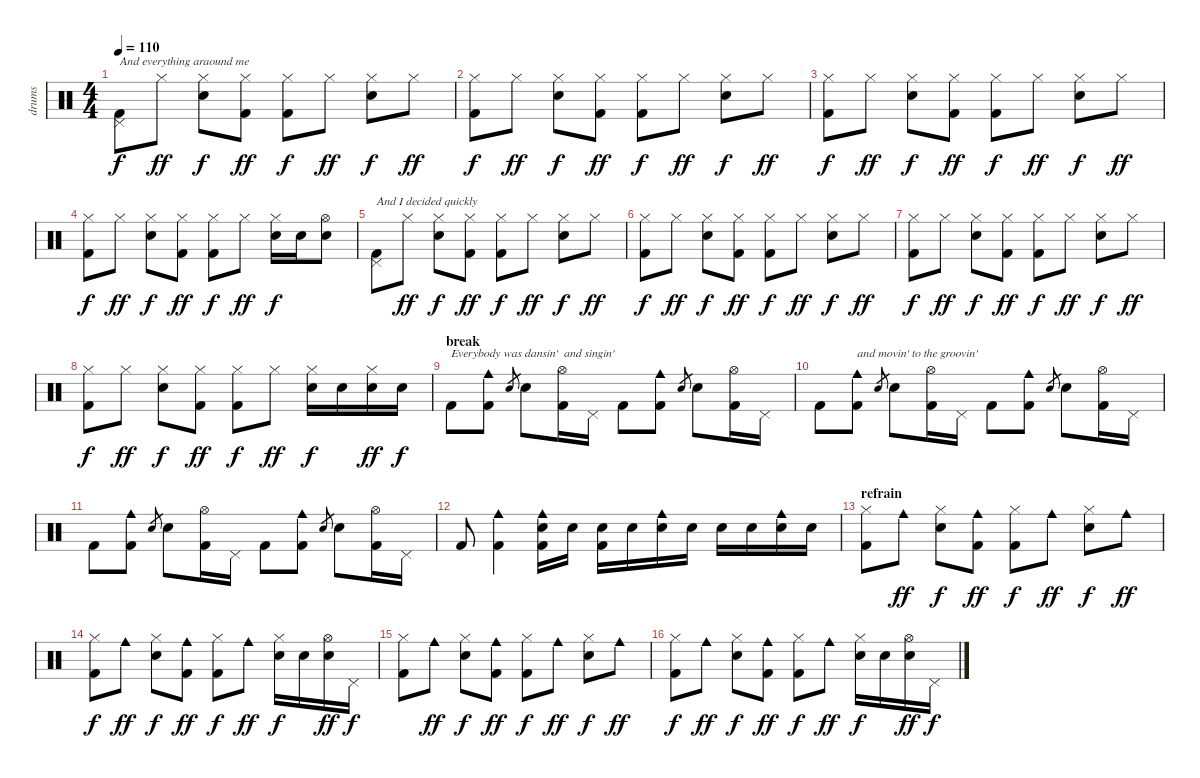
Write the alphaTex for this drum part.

\track ("drums" "drums") {instrument percussion}
\staff {score}
\articulation defaults
\ts (4 4)
\tempo 110
\clef neutral
\ks aminor
("Pedal Hi-Hat (hit)" "Kick (hit) 2").8{txt "And everything araound me" dy f} "Hi-Hat (closed)".8{dy ff} ("Hi-Hat (closed)" "Snare (hit) 2").8{dy f} ("Hi-Hat (closed)" "Kick (hit) 2").8{dy ff} ("Hi-Hat (closed)" "Kick (hit) 2").8{dy f} "Hi-Hat (closed)".8{dy ff} ("Hi-Hat (closed)" "Snare (hit) 2").8{dy f} "Hi-Hat (closed)".8{dy ff} |
("Hi-Hat (closed)" "Kick (hit) 2").8{dy f} "Hi-Hat (closed)".8{dy ff} ("Hi-Hat (closed)" "Snare (hit) 2").8{dy f} ("Hi-Hat (closed)" "Kick (hit) 2").8{dy ff} ("Hi-Hat (closed)" "Kick (hit) 2").8{dy f} "Hi-Hat (closed)".8{dy ff} ("Hi-Hat (closed)" "Snare (hit) 2").8{dy f} "Hi-Hat (closed)".8{dy ff} |
("Hi-Hat (closed)" "Kick (hit) 2").8{dy f} "Hi-Hat (closed)".8{dy ff} ("Hi-Hat (closed)" "Snare (hit) 2").8{dy f} ("Hi-Hat (closed)" "Kick (hit) 2").8{dy ff} ("Hi-Hat (closed)" "Kick (hit) 2").8{dy f} "Hi-Hat (closed)".8{dy ff} ("Hi-Hat (closed)" "Snare (hit) 2").8{dy f} "Hi-Hat (closed)".8{dy ff} |
("Hi-Hat (closed)" "Kick (hit) 2").8{dy f} "Hi-Hat (closed)".8{dy ff} ("Hi-Hat (closed)" "Snare (hit) 2").8{dy f} ("Hi-Hat (closed)" "Kick (hit) 2").8{dy ff} ("Hi-Hat (closed)" "Kick (hit) 2").8{dy f} "Hi-Hat (closed)".8{dy ff} ("Hi-Hat (closed)" "Snare (hit) 2").16{dy f} "Snare (hit) 2".16 ("Hi-Hat (open)" "Snare (hit) 2").8 |
("Pedal Hi-Hat (hit)" "Kick (hit) 2").8{txt "And I decided quickly"} "Hi-Hat (closed)".8{dy ff} ("Hi-Hat (closed)" "Snare (hit) 2").8{dy f} ("Hi-Hat (closed)" "Kick (hit) 2").8{dy ff} ("Hi-Hat (closed)" "Kick (hit) 2").8{dy f} "Hi-Hat (closed)".8{dy ff} ("Hi-Hat (closed)" "Snare (hit) 2").8{dy f} "Hi-Hat (closed)".8{dy ff} |
("Hi-Hat (closed)" "Kick (hit) 2").8{dy f} "Hi-Hat (closed)".8{dy ff} ("Hi-Hat (closed)" "Snare (hit) 2").8{dy f} ("Hi-Hat (closed)" "Kick (hit) 2").8{dy ff} ("Hi-Hat (closed)" "Kick (hit) 2").8{dy f} "Hi-Hat (closed)".8{dy ff} ("Hi-Hat (closed)" "Snare (hit) 2").8{dy f} "Hi-Hat (closed)".8{dy ff} |
("Hi-Hat (closed)" "Kick (hit) 2").8{dy f} "Hi-Hat (closed)".8{dy ff} ("Hi-Hat (closed)" "Snare (hit) 2").8{dy f} ("Hi-Hat (closed)" "Kick (hit) 2").8{dy ff} ("Hi-Hat (closed)" "Kick (hit) 2").8{dy f} "Hi-Hat (closed)".8{dy ff} ("Hi-Hat (closed)" "Snare (hit) 2").8{dy f} "Hi-Hat (closed)".8{dy ff} |
("Hi-Hat (closed)" "Kick (hit) 2").8{dy f} "Hi-Hat (closed)".8{dy ff} ("Hi-Hat (closed)" "Snare (hit) 2").8{dy f} ("Hi-Hat (closed)" "Kick (hit) 2").8{dy ff} ("Hi-Hat (closed)" "Kick (hit) 2").8{dy f} "Hi-Hat (closed)".8{dy ff} ("Hi-Hat (closed)" "Snare (hit) 2").16{dy f} "Snare (hit) 2".16 ("Hi-Hat (closed)" "Snare (hit) 2").16{dy ff} "Snare (hit) 2".16{dy f} |
\section ("" "break")
"Kick (hit) 2".8{txt "Everybody was dansin'  and singin' "} ("Cowbell medium (hit)" "Kick (hit) 2").8 "Hand Clap (hit)".8{gr} "Hand Clap (hit)".8 ("Hi-Hat (open)" "Kick (hit) 2").16 "Pedal Hi-Hat (hit)".16 "Kick (hit) 2".8 ("Cowbell medium (hit)" "Kick (hit) 2").8 "Hand Clap (hit)".8{gr} "Hand Clap (hit)".8 ("Hi-Hat (open)" "Kick (hit) 2").16 "Pedal Hi-Hat (hit)".16 |
"Kick (hit) 2".8 ("Cowbell medium (hit)" "Kick (hit) 2").8{txt "and movin' to the groovin'"} "Hand Clap (hit)".8{gr} "Hand Clap (hit)".8 ("Hi-Hat (open)" "Kick (hit) 2").16 "Pedal Hi-Hat (hit)".16 "Kick (hit) 2".8 ("Cowbell medium (hit)" "Kick (hit) 2").8 "Hand Clap (hit)".8{gr} "Hand Clap (hit)".8 ("Hi-Hat (open)" "Kick (hit) 2").16 "Pedal Hi-Hat (hit)".16 |
"Kick (hit) 2".8 ("Cowbell medium (hit)" "Kick (hit) 2").8 "Hand Clap (hit)".8{gr} "Hand Clap (hit)".8 ("Hi-Hat (open)" "Kick (hit) 2").16 "Pedal Hi-Hat (hit)".16 "Kick (hit) 2".8 ("Cowbell medium (hit)" "Kick (hit) 2").8 "Hand Clap (hit)".8{gr} "Hand Clap (hit)".8 ("Hi-Hat (open)" "Kick (hit) 2").16 "Pedal Hi-Hat (hit)".16 |
"Kick (hit) 2".8 ("Cowbell medium (hit)" "Kick (hit) 2").4 ("Cowbell medium (hit)" "Snare (hit) 2" "Kick (hit) 2").16 "Snare (hit) 2".16 ("Snare (hit) 2" "Kick (hit) 2").16 "Snare (hit) 2".16 ("Cowbell medium (hit)" "Snare (hit) 2").16 "Snare (hit) 2".16 "Snare (hit) 2".16 "Snare (hit) 2".16 ("Cowbell medium (hit)" "Snare (hit) 2").16 "Snare (hit) 2".16 |
\section ("" "refrain")
("Hi-Hat (closed)" "Kick (hit) 2").8 "Cowbell medium (hit)".8{dy ff} ("Hi-Hat (closed)" "Snare (hit) 2").8{dy f} ("Cowbell medium (hit)" "Kick (hit) 2").8{dy ff} ("Hi-Hat (closed)" "Kick (hit) 2").8{dy f} "Cowbell medium (hit)".8{dy ff} ("Hi-Hat (closed)" "Snare (hit) 2").8{dy f} "Cowbell medium (hit)".8{dy ff} |
("Hi-Hat (closed)" "Kick (hit) 2").8{dy f} "Cowbell medium (hit)".8{dy ff} ("Hi-Hat (closed)" "Snare (hit) 2").8{dy f} ("Cowbell medium (hit)" "Kick (hit) 2").8{dy ff} ("Hi-Hat (closed)" "Kick (hit) 2").8{dy f} "Cowbell medium (hit)".8{dy ff} ("Hi-Hat (closed)" "Snare (hit) 2").16{dy f} "Snare (hit) 2".16 ("Hi-Hat (open)" "Snare (hit) 2").16{dy ff} "Pedal Hi-Hat (hit)".16{dy f} |
("Hi-Hat (closed)" "Kick (hit) 2").8 "Cowbell medium (hit)".8{dy ff} ("Hi-Hat (closed)" "Snare (hit) 2").8{dy f} ("Cowbell medium (hit)" "Kick (hit) 2").8{dy ff} ("Hi-Hat (closed)" "Kick (hit) 2").8{dy f} "Cowbell medium (hit)".8{dy ff} ("Hi-Hat (closed)" "Snare (hit) 2").8{dy f} "Cowbell medium (hit)".8{dy ff} |
("Hi-Hat (closed)" "Kick (hit) 2").8{dy f} "Cowbell medium (hit)".8{dy ff} ("Hi-Hat (closed)" "Snare (hit) 2").8{dy f} ("Cowbell medium (hit)" "Kick (hit) 2").8{dy ff} ("Hi-Hat (closed)" "Kick (hit) 2").8{dy f} "Cowbell medium (hit)".8{dy ff} ("Hi-Hat (closed)" "Snare (hit) 2").16{dy f} "Snare (hit) 2".16 ("Hi-Hat (open)" "Snare (hit) 2").16{dy ff} "Pedal Hi-Hat (hit)".16{dy f}
